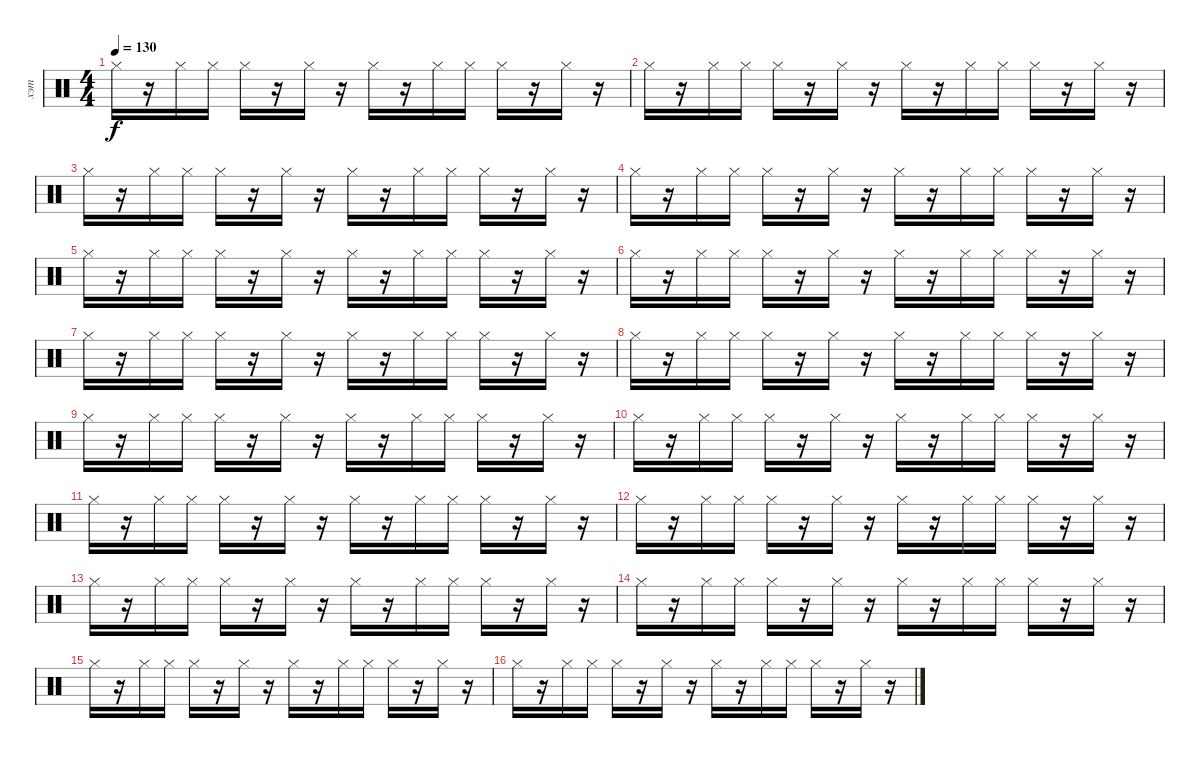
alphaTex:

\track ("хэт" "хэт") {instrument percussion}
\staff {score}
\articulation defaults
\ts (4 4)
\tempo 130
\clef neutral
\ks c "Hi-Hat (closed)".16{dy f}
r.16 "Hi-Hat (closed)".16 "Hi-Hat (closed)".16 "Hi-Hat (closed)".16 r.16 "Hi-Hat (closed)".16 r.16 "Hi-Hat (closed)".16 r.16 "Hi-Hat (closed)".16 "Hi-Hat (closed)".16 "Hi-Hat (closed)".16 r.16 "Hi-Hat (closed)".16 r.16 |
"Hi-Hat (closed)".16 r.16 "Hi-Hat (closed)".16 "Hi-Hat (closed)".16 "Hi-Hat (closed)".16 r.16 "Hi-Hat (closed)".16 r.16 "Hi-Hat (closed)".16 r.16 "Hi-Hat (closed)".16 "Hi-Hat (closed)".16 "Hi-Hat (closed)".16 r.16 "Hi-Hat (closed)".16 r.16 |
"Hi-Hat (closed)".16 r.16 "Hi-Hat (closed)".16 "Hi-Hat (closed)".16 "Hi-Hat (closed)".16 r.16 "Hi-Hat (closed)".16 r.16 "Hi-Hat (closed)".16 r.16 "Hi-Hat (closed)".16 "Hi-Hat (closed)".16 "Hi-Hat (closed)".16 r.16 "Hi-Hat (closed)".16 r.16 |
"Hi-Hat (closed)".16 r.16 "Hi-Hat (closed)".16 "Hi-Hat (closed)".16 "Hi-Hat (closed)".16 r.16 "Hi-Hat (closed)".16 r.16 "Hi-Hat (closed)".16 r.16 "Hi-Hat (closed)".16 "Hi-Hat (closed)".16 "Hi-Hat (closed)".16 r.16 "Hi-Hat (closed)".16 r.16 |
"Hi-Hat (closed)".16 r.16 "Hi-Hat (closed)".16 "Hi-Hat (closed)".16 "Hi-Hat (closed)".16 r.16 "Hi-Hat (closed)".16 r.16 "Hi-Hat (closed)".16 r.16 "Hi-Hat (closed)".16 "Hi-Hat (closed)".16 "Hi-Hat (closed)".16 r.16 "Hi-Hat (closed)".16 r.16 |
"Hi-Hat (closed)".16 r.16 "Hi-Hat (closed)".16 "Hi-Hat (closed)".16 "Hi-Hat (closed)".16 r.16 "Hi-Hat (closed)".16 r.16 "Hi-Hat (closed)".16 r.16 "Hi-Hat (closed)".16 "Hi-Hat (closed)".16 "Hi-Hat (closed)".16 r.16 "Hi-Hat (closed)".16 r.16 |
"Hi-Hat (closed)".16 r.16 "Hi-Hat (closed)".16 "Hi-Hat (closed)".16 "Hi-Hat (closed)".16 r.16 "Hi-Hat (closed)".16 r.16 "Hi-Hat (closed)".16 r.16 "Hi-Hat (closed)".16 "Hi-Hat (closed)".16 "Hi-Hat (closed)".16 r.16 "Hi-Hat (closed)".16 r.16 |
"Hi-Hat (closed)".16 r.16 "Hi-Hat (closed)".16 "Hi-Hat (closed)".16 "Hi-Hat (closed)".16 r.16 "Hi-Hat (closed)".16 r.16 "Hi-Hat (closed)".16 r.16 "Hi-Hat (closed)".16 "Hi-Hat (closed)".16 "Hi-Hat (closed)".16 r.16 "Hi-Hat (closed)".16 r.16 |
"Hi-Hat (closed)".16 r.16 "Hi-Hat (closed)".16 "Hi-Hat (closed)".16 "Hi-Hat (closed)".16 r.16 "Hi-Hat (closed)".16 r.16 "Hi-Hat (closed)".16 r.16 "Hi-Hat (closed)".16 "Hi-Hat (closed)".16 "Hi-Hat (closed)".16 r.16 "Hi-Hat (closed)".16 r.16 |
"Hi-Hat (closed)".16 r.16 "Hi-Hat (closed)".16 "Hi-Hat (closed)".16 "Hi-Hat (closed)".16 r.16 "Hi-Hat (closed)".16 r.16 "Hi-Hat (closed)".16 r.16 "Hi-Hat (closed)".16 "Hi-Hat (closed)".16 "Hi-Hat (closed)".16 r.16 "Hi-Hat (closed)".16 r.16 |
"Hi-Hat (closed)".16 r.16 "Hi-Hat (closed)".16 "Hi-Hat (closed)".16 "Hi-Hat (closed)".16 r.16 "Hi-Hat (closed)".16 r.16 "Hi-Hat (closed)".16 r.16 "Hi-Hat (closed)".16 "Hi-Hat (closed)".16 "Hi-Hat (closed)".16 r.16 "Hi-Hat (closed)".16 r.16 |
"Hi-Hat (closed)".16 r.16 "Hi-Hat (closed)".16 "Hi-Hat (closed)".16 "Hi-Hat (closed)".16 r.16 "Hi-Hat (closed)".16 r.16 "Hi-Hat (closed)".16 r.16 "Hi-Hat (closed)".16 "Hi-Hat (closed)".16 "Hi-Hat (closed)".16 r.16 "Hi-Hat (closed)".16 r.16 |
"Hi-Hat (closed)".16 r.16 "Hi-Hat (closed)".16 "Hi-Hat (closed)".16 "Hi-Hat (closed)".16 r.16 "Hi-Hat (closed)".16 r.16 "Hi-Hat (closed)".16 r.16 "Hi-Hat (closed)".16 "Hi-Hat (closed)".16 "Hi-Hat (closed)".16 r.16 "Hi-Hat (closed)".16 r.16 |
"Hi-Hat (closed)".16 r.16 "Hi-Hat (closed)".16 "Hi-Hat (closed)".16 "Hi-Hat (closed)".16 r.16 "Hi-Hat (closed)".16 r.16 "Hi-Hat (closed)".16 r.16 "Hi-Hat (closed)".16 "Hi-Hat (closed)".16 "Hi-Hat (closed)".16 r.16 "Hi-Hat (closed)".16 r.16 |
"Hi-Hat (closed)".16 r.16 "Hi-Hat (closed)".16 "Hi-Hat (closed)".16 "Hi-Hat (closed)".16 r.16 "Hi-Hat (closed)".16 r.16 "Hi-Hat (closed)".16 r.16 "Hi-Hat (closed)".16 "Hi-Hat (closed)".16 "Hi-Hat (closed)".16 r.16 "Hi-Hat (closed)".16 r.16 |
"Hi-Hat (closed)".16 r.16 "Hi-Hat (closed)".16 "Hi-Hat (closed)".16 "Hi-Hat (closed)".16 r.16 "Hi-Hat (closed)".16 r.16 "Hi-Hat (closed)".16 r.16 "Hi-Hat (closed)".16 "Hi-Hat (closed)".16 "Hi-Hat (closed)".16 r.16 "Hi-Hat (closed)".16 r.16
